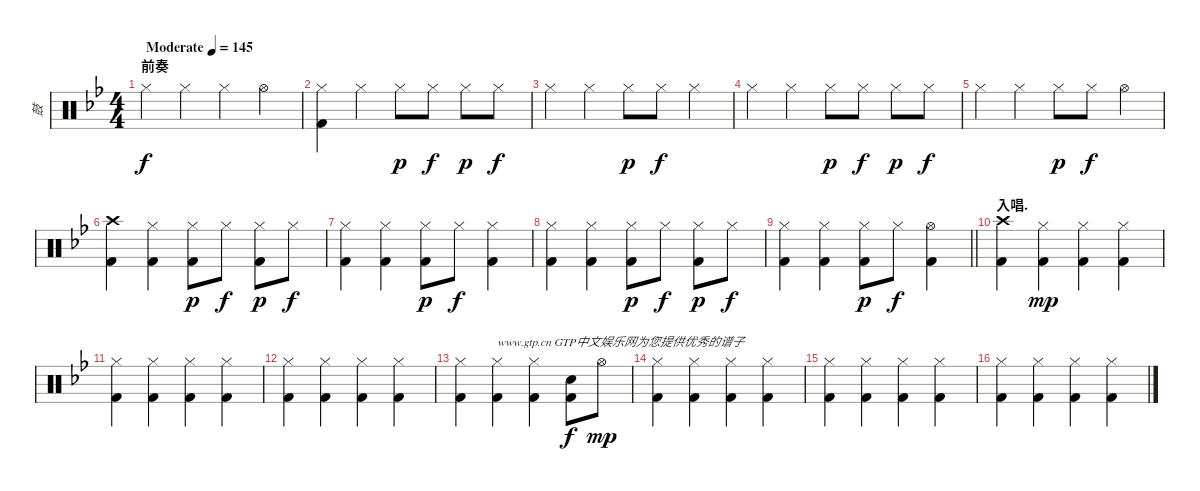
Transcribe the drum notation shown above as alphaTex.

\track ("鼓" "鼓") {instrument percussion}
\staff {score}
\articulation defaults
\ts (4 4)
\section ("" "前奏")
\tempo (145 "Moderate")
\clef neutral
\ks bb "Hi-Hat (closed)".4{dy f} "Hi-Hat (closed)".4 "Hi-Hat (closed)".4 "Hi-Hat (open)".4
|
("Hi-Hat (closed)" "Kick (hit) 2").4 "Hi-Hat (closed)".4 "Hi-Hat (closed)".8{dy p} "Hi-Hat (closed)".8{dy f} "Hi-Hat (closed)".8{dy p} "Hi-Hat (closed)".8{dy f} |
"Hi-Hat (closed)".4 "Hi-Hat (closed)".4 "Hi-Hat (closed)".8{dy p} "Hi-Hat (closed)".8{dy f} "Hi-Hat (closed)".4 |
"Hi-Hat (closed)".4 "Hi-Hat (closed)".4 "Hi-Hat (closed)".8{dy p} "Hi-Hat (closed)".8{dy f} "Hi-Hat (closed)".8{dy p} "Hi-Hat (closed)".8{dy f} |
"Hi-Hat (closed)".4 "Hi-Hat (closed)".4 "Hi-Hat (closed)".8{dy p} "Hi-Hat (closed)".8{dy f} "Hi-Hat (open)".4 |
("Crash high (hit)" "Kick (hit) 2").4 ("Hi-Hat (closed)" "Kick (hit) 2").4 ("Hi-Hat (closed)" "Kick (hit) 2").8{dy p} "Hi-Hat (closed)".8{dy f} ("Hi-Hat (closed)" "Kick (hit) 2").8{dy p} "Hi-Hat (closed)".8{dy f} |
("Hi-Hat (closed)" "Kick (hit) 2").4 ("Hi-Hat (closed)" "Kick (hit) 2").4 ("Hi-Hat (closed)" "Kick (hit) 2").8{dy p} "Hi-Hat (closed)".8{dy f} ("Hi-Hat (closed)" "Kick (hit) 2").4 |
("Hi-Hat (closed)" "Kick (hit) 2").4 ("Hi-Hat (closed)" "Kick (hit) 2").4 ("Hi-Hat (closed)" "Kick (hit) 2").8{dy p} "Hi-Hat (closed)".8{dy f} ("Hi-Hat (closed)" "Kick (hit) 2").8{dy p} "Hi-Hat (closed)".8{dy f} |
\barLineRight lightlight
("Hi-Hat (closed)" "Kick (hit) 2").4 ("Hi-Hat (closed)" "Kick (hit) 2").4 ("Hi-Hat (closed)" "Kick (hit) 2").8{dy p} "Hi-Hat (closed)".8{dy f} ("Hi-Hat (open)" "Kick (hit) 2").4 |
\section ("" "入唱.")
("Crash high (hit)" "Kick (hit) 2").4 ("Hi-Hat (closed)" "Kick (hit) 2").4{dy mp} ("Hi-Hat (closed)" "Kick (hit) 2").4 ("Hi-Hat (closed)" "Kick (hit) 2").4 |
("Hi-Hat (closed)" "Kick (hit) 2").4 ("Hi-Hat (closed)" "Kick (hit) 2").4 ("Hi-Hat (closed)" "Kick (hit) 2").4 ("Hi-Hat (closed)" "Kick (hit) 2").4 |
("Hi-Hat (closed)" "Kick (hit) 2").4 ("Hi-Hat (closed)" "Kick (hit) 2").4 ("Hi-Hat (closed)" "Kick (hit) 2").4 ("Hi-Hat (closed)" "Kick (hit) 2").4 |
("Hi-Hat (closed)" "Kick (hit) 2").4 ("Hi-Hat (closed)" "Kick (hit) 2").4{txt "www.gtp.cn GTP中文娱乐网为您提供优秀的谱子"} ("Hi-Hat (closed)" "Kick (hit) 2").4 ("Snare (hit) 2" "Kick (hit) 2").8{dy f} "Hi-Hat (open)".8{dy mp} |
("Hi-Hat (closed)" "Kick (hit) 2").4 ("Hi-Hat (closed)" "Kick (hit) 2").4 ("Hi-Hat (closed)" "Kick (hit) 2").4 ("Hi-Hat (closed)" "Kick (hit) 2").4 |
("Hi-Hat (closed)" "Kick (hit) 2").4 ("Hi-Hat (closed)" "Kick (hit) 2").4 ("Hi-Hat (closed)" "Kick (hit) 2").4 ("Hi-Hat (closed)" "Kick (hit) 2").4 |
("Hi-Hat (closed)" "Kick (hit) 2").4 ("Hi-Hat (closed)" "Kick (hit) 2").4 ("Hi-Hat (closed)" "Kick (hit) 2").4 ("Hi-Hat (closed)" "Kick (hit) 2").4
